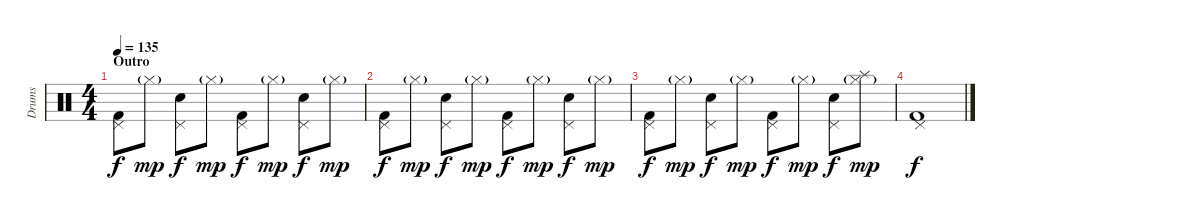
\track ("Drums" "Drums") {instrument percussion}
\staff {score}
\articulation defaults
\ts (4 4)
\section ("" "Outro")
\tempo 135
\clef neutral
\ks c
("Kick (hit) 2" "Pedal Hi-Hat (hit)").8{dy f} "Hi-Hat (closed)"{g}.8{dy mp} ("Hand Clap (hit)" "Pedal Hi-Hat (hit)").8{dy f} "Hi-Hat (closed)"{g}.8{dy mp} ("Kick (hit) 2" "Pedal Hi-Hat (hit)").8{dy f} "Hi-Hat (closed)"{g}.8{dy mp} ("Hand Clap (hit)" "Pedal Hi-Hat (hit)").8{dy f} "Hi-Hat (closed)"{g}.8{dy mp} |
("Kick (hit) 2" "Pedal Hi-Hat (hit)").8{dy f} "Hi-Hat (closed)"{g}.8{dy mp} ("Hand Clap (hit)" "Pedal Hi-Hat (hit)").8{dy f} "Hi-Hat (closed)"{g}.8{dy mp} ("Kick (hit) 2" "Pedal Hi-Hat (hit)").8{dy f} "Hi-Hat (closed)"{g}.8{dy mp} ("Hand Clap (hit)" "Pedal Hi-Hat (hit)").8{dy f} "Hi-Hat (closed)"{g}.8{dy mp} |
("Kick (hit) 2" "Pedal Hi-Hat (hit)").8{dy f} "Hi-Hat (closed)"{g}.8{dy mp} ("Hand Clap (hit)" "Pedal Hi-Hat (hit)").8{dy f} "Hi-Hat (closed)"{g}.8{dy mp} ("Kick (hit) 2" "Pedal Hi-Hat (hit)").8{dy f} "Hi-Hat (closed)"{g}.8{dy mp} ("Hand Clap (hit)" "Pedal Hi-Hat (hit)").8{dy f} ("Hi-Hat (closed)"{g} "Splash (hit)").8{dy mp} |
("Kick (hit) 2" "Pedal Hi-Hat (hit)").1{dy f}
